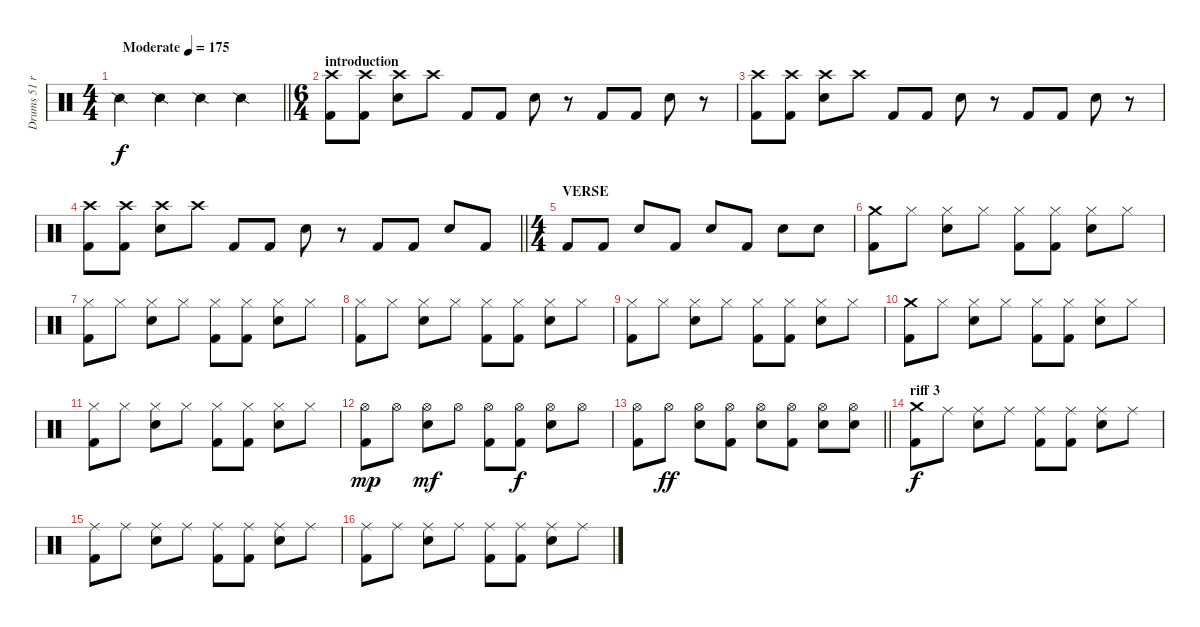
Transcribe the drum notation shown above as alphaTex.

\track ("Drums 51 ride" "Drums 51 r") {instrument percussion}
\staff {score}
\articulation defaults
\ts (4 4)
\tempo (175 "Moderate")
\clef neutral
\barLineRight lightlight
\ks c "Snare (side stick) 2".4{dy f} "Snare (side stick) 2".4 "Snare (side stick) 2".4 "Snare (side stick) 2".4
|
\ts (6 4)
\section ("" "introduction")
("Crash high (hit)" "Kick (hit) 2").8 ("Crash high (hit)" "Kick (hit) 2").8 ("Crash high (hit)" "Snare (hit) 2").8 "Crash high (hit)".8 "Kick (hit) 2".8 "Kick (hit) 2".8 "Snare (hit) 2".8 r.8 "Kick (hit) 2".8 "Kick (hit) 2".8 "Snare (hit) 2".8 r.8 |
("Crash high (hit)" "Kick (hit) 2").8 ("Crash high (hit)" "Kick (hit) 2").8 ("Crash high (hit)" "Snare (hit) 2").8 "Crash high (hit)".8 "Kick (hit) 2".8 "Kick (hit) 2".8 "Snare (hit) 2".8 r.8 "Kick (hit) 2".8 "Kick (hit) 2".8 "Snare (hit) 2".8 r.8 |
\barLineRight lightlight
("Crash high (hit)" "Kick (hit) 2").8 ("Crash high (hit)" "Kick (hit) 2").8 ("Crash high (hit)" "Snare (hit) 2").8 "Crash high (hit)".8 "Kick (hit) 2".8 "Kick (hit) 2".8 "Snare (hit) 2".8 r.8 "Kick (hit) 2".8 "Kick (hit) 2".8 "Snare (hit) 2".8 "Kick (hit) 2".8 |
\ts (4 4)
\section ("" "VERSE ")
"Kick (hit) 2".8 "Kick (hit) 2".8 "Snare (hit) 2".8 "Kick (hit) 2".8 "Snare (hit) 2".8 "Kick (hit) 2".8 "Snare (hit) 2".8 "Snare (hit) 2".8 |
("Crash medium (hit)" "Kick (hit) 2").8 "Hi-Hat (closed)".8 ("Hi-Hat (closed)" "Snare (hit) 2").8 "Hi-Hat (closed)".8 ("Hi-Hat (closed)" "Kick (hit) 2").8 ("Hi-Hat (closed)" "Kick (hit) 2").8 ("Hi-Hat (closed)" "Snare (hit) 2").8 "Hi-Hat (closed)".8 |
("Hi-Hat (closed)" "Kick (hit) 2").8 "Hi-Hat (closed)".8 ("Hi-Hat (closed)" "Snare (hit) 2").8 "Hi-Hat (closed)".8 ("Hi-Hat (closed)" "Kick (hit) 2").8 ("Hi-Hat (closed)" "Kick (hit) 2").8 ("Hi-Hat (closed)" "Snare (hit) 2").8 "Hi-Hat (closed)".8 |
("Hi-Hat (closed)" "Kick (hit) 2").8 "Hi-Hat (closed)".8 ("Hi-Hat (closed)" "Snare (hit) 2").8 "Hi-Hat (closed)".8 ("Hi-Hat (closed)" "Kick (hit) 2").8 ("Hi-Hat (closed)" "Kick (hit) 2").8 ("Hi-Hat (closed)" "Snare (hit) 2").8 "Hi-Hat (closed)".8 |
("Hi-Hat (closed)" "Kick (hit) 2").8 "Hi-Hat (closed)".8 ("Hi-Hat (closed)" "Snare (hit) 2").8 "Hi-Hat (closed)".8 ("Hi-Hat (closed)" "Kick (hit) 2").8 ("Hi-Hat (closed)" "Kick (hit) 2").8 ("Hi-Hat (closed)" "Snare (hit) 2").8 "Hi-Hat (closed)".8 |
("Crash medium (hit)" "Kick (hit) 2").8 "Hi-Hat (closed)".8 ("Hi-Hat (closed)" "Snare (hit) 2").8 "Hi-Hat (closed)".8 ("Hi-Hat (closed)" "Kick (hit) 2").8 ("Hi-Hat (closed)" "Kick (hit) 2").8 ("Hi-Hat (closed)" "Snare (hit) 2").8 "Hi-Hat (closed)".8 |
("Hi-Hat (closed)" "Kick (hit) 2").8 "Hi-Hat (closed)".8 ("Hi-Hat (closed)" "Snare (hit) 2").8 "Hi-Hat (closed)".8 ("Hi-Hat (closed)" "Kick (hit) 2").8 ("Hi-Hat (closed)" "Kick (hit) 2").8 ("Hi-Hat (closed)" "Snare (hit) 2").8 "Hi-Hat (closed)".8 |
("Hi-Hat (open)" "Kick (hit) 2").8{dy mp} "Hi-Hat (open)".8 ("Hi-Hat (open)" "Snare (hit) 2").8{dy mf} "Hi-Hat (open)".8 ("Hi-Hat (open)" "Kick (hit) 2").8 ("Hi-Hat (open)" "Kick (hit) 2").8{dy f} ("Hi-Hat (open)" "Snare (hit) 2").8 "Hi-Hat (open)".8 |
\barLineRight lightlight
("Hi-Hat (open)" "Kick (hit) 2").8 "Hi-Hat (open)".8{dy ff} ("Hi-Hat (open)" "Snare (hit) 2").8 ("Hi-Hat (open)" "Kick (hit) 2").8 ("Hi-Hat (open)" "Snare (hit) 2").8 ("Hi-Hat (open)" "Kick (hit) 2").8 ("Hi-Hat (open)" "Snare (hit) 2").8 ("Hi-Hat (open)" "Snare (hit) 2").8 |
\section ("" "riff 3")
("Crash medium (hit)" "Kick (hit) 2").8{dy f} "Ride (middle)".8 ("Ride (middle)" "Snare (hit) 2").8 "Ride (middle)".8 ("Ride (middle)" "Kick (hit) 2").8 ("Ride (middle)" "Kick (hit) 2").8 ("Ride (middle)" "Snare (hit) 2").8 "Ride (middle)".8 |
("Ride (middle)" "Kick (hit) 2").8 "Ride (middle)".8 ("Ride (middle)" "Snare (hit) 2").8 "Ride (middle)".8 ("Ride (middle)" "Kick (hit) 2").8 ("Ride (middle)" "Kick (hit) 2").8 ("Ride (middle)" "Snare (hit) 2").8 "Ride (middle)".8 |
("Ride (middle)" "Kick (hit) 2").8 "Ride (middle)".8 ("Ride (middle)" "Snare (hit) 2").8 "Ride (middle)".8 ("Ride (middle)" "Kick (hit) 2").8 ("Ride (middle)" "Kick (hit) 2").8 ("Ride (middle)" "Snare (hit) 2").8 "Ride (middle)".8
